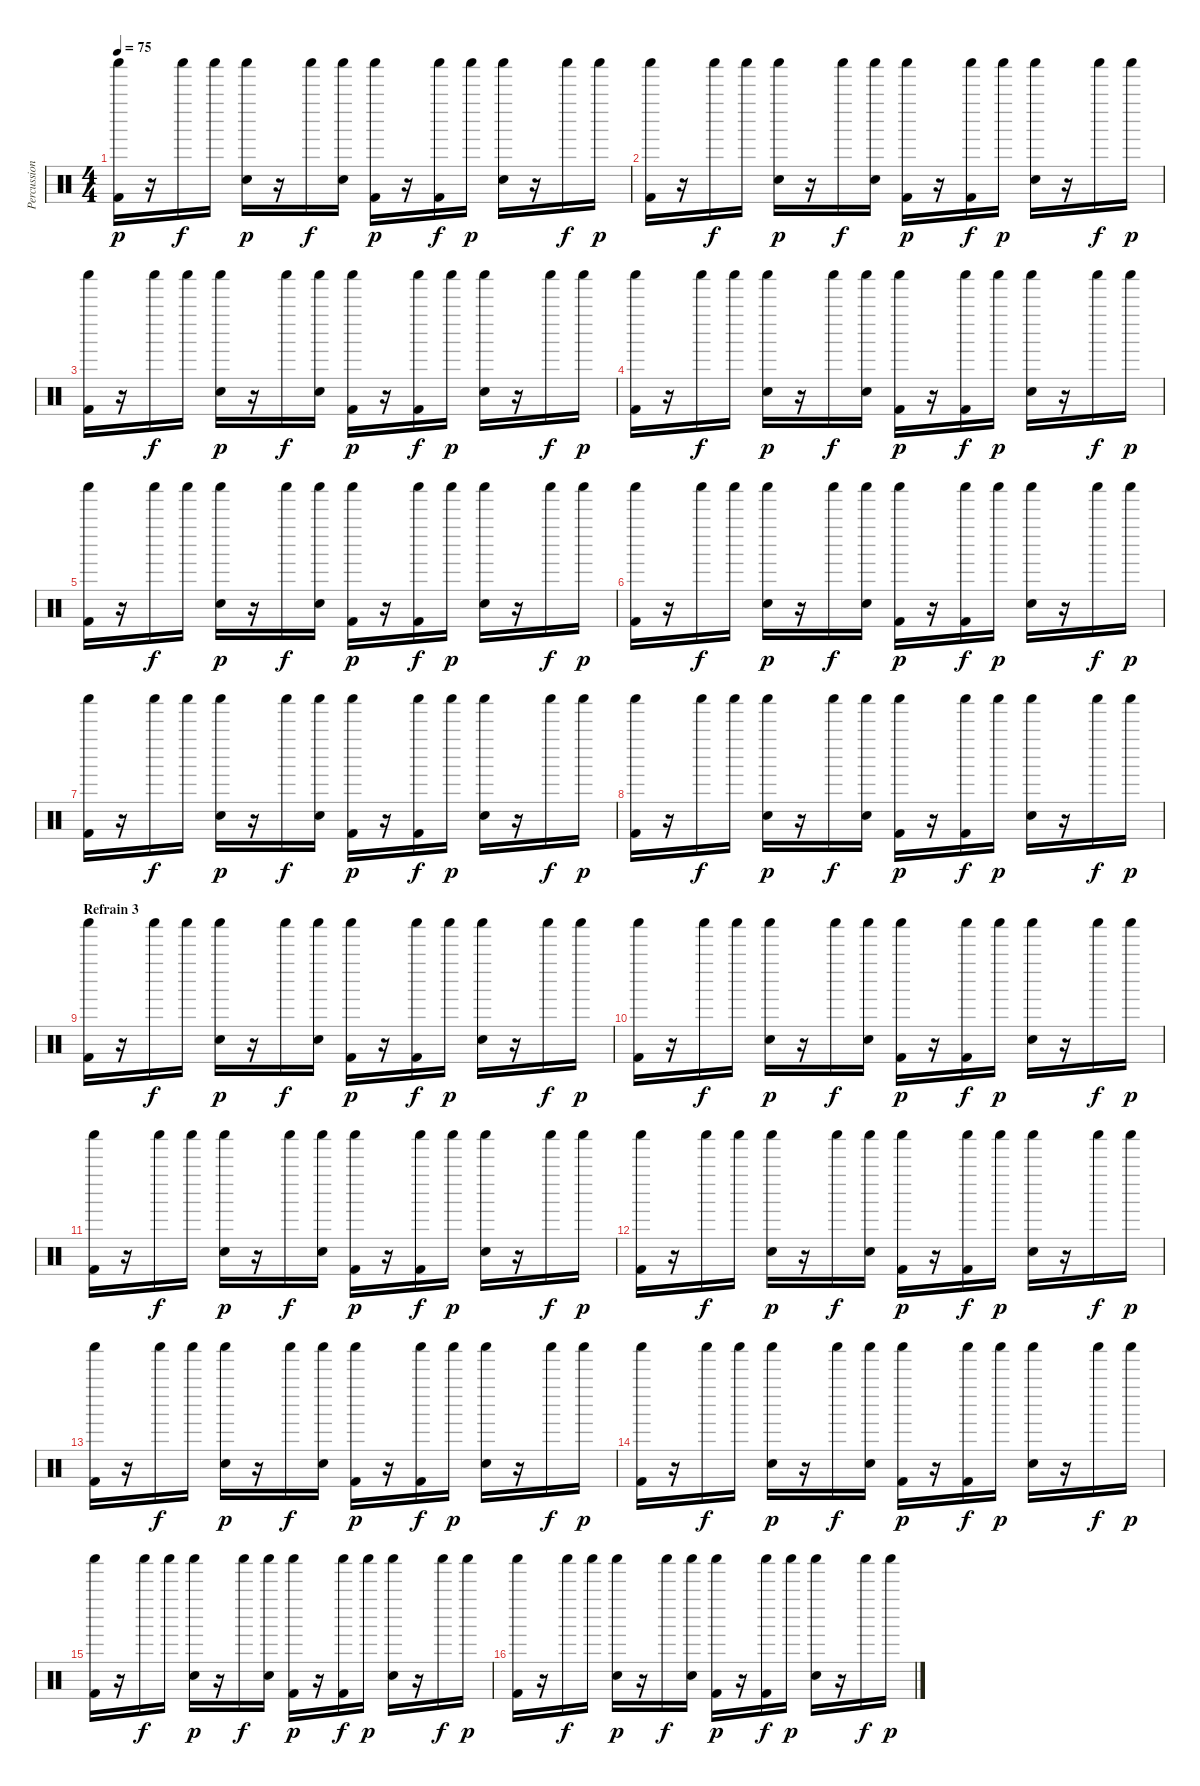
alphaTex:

\track ("Percussions - Dom Howard" "Percussion") {instrument percussion}
\staff {score}
\articulation defaults
\ts (4 4)
\tempo 75
\clef neutral
\ks c
("Kick (hit) 2" "Shaker (hit)").16{dy p} r.16 "Shaker (hit)".16{dy f} "Shaker (hit)".16 ("Electric Snare (hit)" "Shaker (hit)").16{dy p} r.16 "Shaker (hit)".16{dy f} ("Electric Snare (hit)" "Shaker (hit)").16 ("Kick (hit) 2" "Shaker (hit)").16{dy p} r.16 ("Kick (hit) 2" "Shaker (hit)").16{dy f} "Shaker (hit)".16{dy p} ("Electric Snare (hit)" "Shaker (hit)").16 r.16 "Shaker (hit)".16{dy f} "Shaker (hit)".16{dy p} |
("Kick (hit) 2" "Shaker (hit)").16 r.16 "Shaker (hit)".16{dy f} "Shaker (hit)".16 ("Electric Snare (hit)" "Shaker (hit)").16{dy p} r.16 "Shaker (hit)".16{dy f} ("Electric Snare (hit)" "Shaker (hit)").16 ("Kick (hit) 2" "Shaker (hit)").16{dy p} r.16 ("Kick (hit) 2" "Shaker (hit)").16{dy f} "Shaker (hit)".16{dy p} ("Electric Snare (hit)" "Shaker (hit)").16 r.16 "Shaker (hit)".16{dy f} "Shaker (hit)".16{dy p} |
("Kick (hit) 2" "Shaker (hit)").16 r.16 "Shaker (hit)".16{dy f} "Shaker (hit)".16 ("Electric Snare (hit)" "Shaker (hit)").16{dy p} r.16 "Shaker (hit)".16{dy f} ("Electric Snare (hit)" "Shaker (hit)").16 ("Kick (hit) 2" "Shaker (hit)").16{dy p} r.16 ("Kick (hit) 2" "Shaker (hit)").16{dy f} "Shaker (hit)".16{dy p} ("Electric Snare (hit)" "Shaker (hit)").16 r.16 "Shaker (hit)".16{dy f} "Shaker (hit)".16{dy p} |
("Kick (hit) 2" "Shaker (hit)").16 r.16 "Shaker (hit)".16{dy f} "Shaker (hit)".16 ("Electric Snare (hit)" "Shaker (hit)").16{dy p} r.16 "Shaker (hit)".16{dy f} ("Electric Snare (hit)" "Shaker (hit)").16 ("Kick (hit) 2" "Shaker (hit)").16{dy p} r.16 ("Kick (hit) 2" "Shaker (hit)").16{dy f} "Shaker (hit)".16{dy p} ("Electric Snare (hit)" "Shaker (hit)").16 r.16 "Shaker (hit)".16{dy f} "Shaker (hit)".16{dy p} |
("Kick (hit) 2" "Shaker (hit)").16 r.16 "Shaker (hit)".16{dy f} "Shaker (hit)".16 ("Electric Snare (hit)" "Shaker (hit)").16{dy p} r.16 "Shaker (hit)".16{dy f} ("Electric Snare (hit)" "Shaker (hit)").16 ("Kick (hit) 2" "Shaker (hit)").16{dy p} r.16 ("Kick (hit) 2" "Shaker (hit)").16{dy f} "Shaker (hit)".16{dy p} ("Electric Snare (hit)" "Shaker (hit)").16 r.16 "Shaker (hit)".16{dy f} "Shaker (hit)".16{dy p} |
("Kick (hit) 2" "Shaker (hit)").16 r.16 "Shaker (hit)".16{dy f} "Shaker (hit)".16 ("Electric Snare (hit)" "Shaker (hit)").16{dy p} r.16 "Shaker (hit)".16{dy f} ("Electric Snare (hit)" "Shaker (hit)").16 ("Kick (hit) 2" "Shaker (hit)").16{dy p} r.16 ("Kick (hit) 2" "Shaker (hit)").16{dy f} "Shaker (hit)".16{dy p} ("Electric Snare (hit)" "Shaker (hit)").16 r.16 "Shaker (hit)".16{dy f} "Shaker (hit)".16{dy p} |
("Kick (hit) 2" "Shaker (hit)").16 r.16 "Shaker (hit)".16{dy f} "Shaker (hit)".16 ("Electric Snare (hit)" "Shaker (hit)").16{dy p} r.16 "Shaker (hit)".16{dy f} ("Electric Snare (hit)" "Shaker (hit)").16 ("Kick (hit) 2" "Shaker (hit)").16{dy p} r.16 ("Kick (hit) 2" "Shaker (hit)").16{dy f} "Shaker (hit)".16{dy p} ("Electric Snare (hit)" "Shaker (hit)").16 r.16 "Shaker (hit)".16{dy f} "Shaker (hit)".16{dy p} |
("Kick (hit) 2" "Shaker (hit)").16 r.16 "Shaker (hit)".16{dy f} "Shaker (hit)".16 ("Electric Snare (hit)" "Shaker (hit)").16{dy p} r.16 "Shaker (hit)".16{dy f} ("Electric Snare (hit)" "Shaker (hit)").16 ("Kick (hit) 2" "Shaker (hit)").16{dy p} r.16 ("Kick (hit) 2" "Shaker (hit)").16{dy f} "Shaker (hit)".16{dy p} ("Electric Snare (hit)" "Shaker (hit)").16 r.16 "Shaker (hit)".16{dy f} "Shaker (hit)".16{dy p} |
\section ("" "Refrain 3")
("Kick (hit) 2" "Shaker (hit)").16 r.16 "Shaker (hit)".16{dy f} "Shaker (hit)".16 ("Electric Snare (hit)" "Shaker (hit)").16{dy p} r.16 "Shaker (hit)".16{dy f} ("Electric Snare (hit)" "Shaker (hit)").16 ("Kick (hit) 2" "Shaker (hit)").16{dy p} r.16 ("Kick (hit) 2" "Shaker (hit)").16{dy f} "Shaker (hit)".16{dy p} ("Electric Snare (hit)" "Shaker (hit)").16 r.16 "Shaker (hit)".16{dy f} "Shaker (hit)".16{dy p} |
("Kick (hit) 2" "Shaker (hit)").16 r.16 "Shaker (hit)".16{dy f} "Shaker (hit)".16 ("Electric Snare (hit)" "Shaker (hit)").16{dy p} r.16 "Shaker (hit)".16{dy f} ("Electric Snare (hit)" "Shaker (hit)").16 ("Kick (hit) 2" "Shaker (hit)").16{dy p} r.16 ("Kick (hit) 2" "Shaker (hit)").16{dy f} "Shaker (hit)".16{dy p} ("Electric Snare (hit)" "Shaker (hit)").16 r.16 "Shaker (hit)".16{dy f} "Shaker (hit)".16{dy p} |
("Kick (hit) 2" "Shaker (hit)").16 r.16 "Shaker (hit)".16{dy f} "Shaker (hit)".16 ("Electric Snare (hit)" "Shaker (hit)").16{dy p} r.16 "Shaker (hit)".16{dy f} ("Electric Snare (hit)" "Shaker (hit)").16 ("Kick (hit) 2" "Shaker (hit)").16{dy p} r.16 ("Kick (hit) 2" "Shaker (hit)").16{dy f} "Shaker (hit)".16{dy p} ("Electric Snare (hit)" "Shaker (hit)").16 r.16 "Shaker (hit)".16{dy f} "Shaker (hit)".16{dy p} |
("Kick (hit) 2" "Shaker (hit)").16 r.16 "Shaker (hit)".16{dy f} "Shaker (hit)".16 ("Electric Snare (hit)" "Shaker (hit)").16{dy p} r.16 "Shaker (hit)".16{dy f} ("Electric Snare (hit)" "Shaker (hit)").16 ("Kick (hit) 2" "Shaker (hit)").16{dy p} r.16 ("Kick (hit) 2" "Shaker (hit)").16{dy f} "Shaker (hit)".16{dy p} ("Electric Snare (hit)" "Shaker (hit)").16 r.16 "Shaker (hit)".16{dy f} "Shaker (hit)".16{dy p} |
("Kick (hit) 2" "Shaker (hit)").16 r.16 "Shaker (hit)".16{dy f} "Shaker (hit)".16 ("Electric Snare (hit)" "Shaker (hit)").16{dy p} r.16 "Shaker (hit)".16{dy f} ("Electric Snare (hit)" "Shaker (hit)").16 ("Kick (hit) 2" "Shaker (hit)").16{dy p} r.16 ("Kick (hit) 2" "Shaker (hit)").16{dy f} "Shaker (hit)".16{dy p} ("Electric Snare (hit)" "Shaker (hit)").16 r.16 "Shaker (hit)".16{dy f} "Shaker (hit)".16{dy p} |
("Kick (hit) 2" "Shaker (hit)").16 r.16 "Shaker (hit)".16{dy f} "Shaker (hit)".16 ("Electric Snare (hit)" "Shaker (hit)").16{dy p} r.16 "Shaker (hit)".16{dy f} ("Electric Snare (hit)" "Shaker (hit)").16 ("Kick (hit) 2" "Shaker (hit)").16{dy p} r.16 ("Kick (hit) 2" "Shaker (hit)").16{dy f} "Shaker (hit)".16{dy p} ("Electric Snare (hit)" "Shaker (hit)").16 r.16 "Shaker (hit)".16{dy f} "Shaker (hit)".16{dy p} |
("Kick (hit) 2" "Shaker (hit)").16 r.16 "Shaker (hit)".16{dy f} "Shaker (hit)".16 ("Electric Snare (hit)" "Shaker (hit)").16{dy p} r.16 "Shaker (hit)".16{dy f} ("Electric Snare (hit)" "Shaker (hit)").16 ("Kick (hit) 2" "Shaker (hit)").16{dy p} r.16 ("Kick (hit) 2" "Shaker (hit)").16{dy f} "Shaker (hit)".16{dy p} ("Electric Snare (hit)" "Shaker (hit)").16 r.16 "Shaker (hit)".16{dy f} "Shaker (hit)".16{dy p} |
("Kick (hit) 2" "Shaker (hit)").16 r.16 "Shaker (hit)".16{dy f} "Shaker (hit)".16 ("Electric Snare (hit)" "Shaker (hit)").16{dy p} r.16 "Shaker (hit)".16{dy f} ("Electric Snare (hit)" "Shaker (hit)").16 ("Kick (hit) 2" "Shaker (hit)").16{dy p} r.16 ("Kick (hit) 2" "Shaker (hit)").16{dy f} "Shaker (hit)".16{dy p} ("Electric Snare (hit)" "Shaker (hit)").16 r.16 "Shaker (hit)".16{dy f} "Shaker (hit)".16{dy p}
